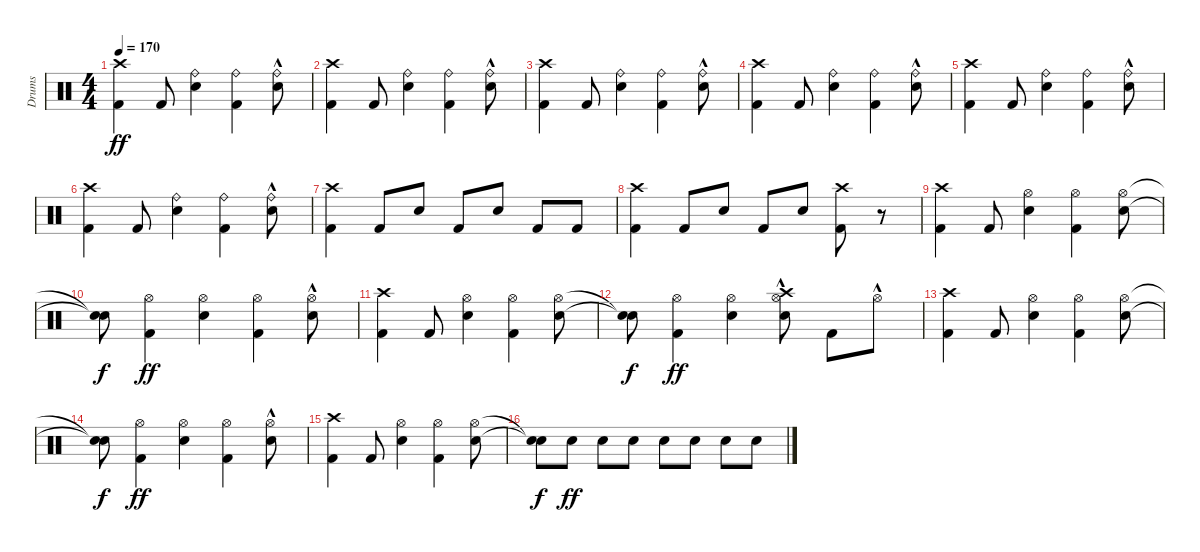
\track ("Drums" "Drums") {instrument percussion}
\staff {score}
\articulation defaults
\ts (4 4)
\tempo 170
\clef neutral
\ks c
("Kick (hit) 2" "Crash high (hit)").4{dy ff} "Kick (hit) 2".8 ("Snare (hit) 2" "Ride (bell)").4 ("Kick (hit) 2" "Ride (bell)").4 ("Snare (hit) 2" "Ride (bell)"{hac}).8 |
("Kick (hit) 2" "Crash high (hit)").4 "Kick (hit) 2".8 ("Snare (hit) 2" "Ride (bell)").4 ("Kick (hit) 2" "Ride (bell)").4 ("Snare (hit) 2" "Ride (bell)"{hac}).8 |
("Kick (hit) 2" "Crash high (hit)").4 "Kick (hit) 2".8 ("Snare (hit) 2" "Ride (bell)").4 ("Kick (hit) 2" "Ride (bell)").4 ("Snare (hit) 2" "Ride (bell)"{hac}).8 |
("Kick (hit) 2" "Crash high (hit)").4 "Kick (hit) 2".8 ("Snare (hit) 2" "Ride (bell)").4 ("Kick (hit) 2" "Ride (bell)").4 ("Snare (hit) 2" "Ride (bell)"{hac}).8 |
("Kick (hit) 2" "Crash high (hit)").4 "Kick (hit) 2".8 ("Snare (hit) 2" "Ride (bell)").4 ("Kick (hit) 2" "Ride (bell)").4 ("Snare (hit) 2" "Ride (bell)"{hac}).8 |
("Kick (hit) 2" "Crash high (hit)").4 "Kick (hit) 2".8 ("Snare (hit) 2" "Ride (bell)").4 ("Kick (hit) 2" "Ride (bell)").4 ("Snare (hit) 2" "Ride (bell)"{hac}).8 |
("Kick (hit) 2" "Crash high (hit)").4 "Kick (hit) 2".8 "Snare (hit) 2".8 "Kick (hit) 2".8 "Snare (hit) 2".8 "Kick (hit) 2".8 "Kick (hit) 2".8 |
("Kick (hit) 2" "Crash high (hit)").4 "Kick (hit) 2".8 "Snare (hit) 2".8 "Kick (hit) 2".8 "Snare (hit) 2".8 ("Kick (hit) 2" "Crash high (hit)").8 r.8 |
("Kick (hit) 2" "Crash high (hit)").4 "Kick (hit) 2".8 ("Snare (hit) 2" "Hi-Hat (open)").4 ("Kick (hit) 2" "Hi-Hat (open)").4 ("Snare (hit) 2" "Hi-Hat (open)").8 |
("Snare (hit)"{t} "Snare (hit)"{t}).8{dy f} ("Kick (hit) 2" "Hi-Hat (open)").4{dy ff} ("Snare (hit) 2" "Hi-Hat (open)").4 ("Kick (hit) 2" "Hi-Hat (open)").4 ("Snare (hit) 2" "Hi-Hat (open)"{hac}).8 |
("Kick (hit) 2" "Crash high (hit)").4 "Kick (hit) 2".8 ("Snare (hit) 2" "Hi-Hat (open)").4 ("Kick (hit) 2" "Hi-Hat (open)").4 ("Snare (hit) 2" "Hi-Hat (open)").8 |
("Snare (hit)"{t} "Snare (hit)"{t}).8{dy f} ("Kick (hit) 2" "Hi-Hat (open)").4{dy ff} ("Snare (hit) 2" "Hi-Hat (open)").4 ("Snare (hit) 2" "Hi-Hat (open)"{hac} "Crash high (hit)"{hac}).8 "Kick (hit) 2".8 "Hi-Hat (open)"{hac}.8 |
("Kick (hit) 2" "Crash high (hit)").4 "Kick (hit) 2".8 ("Snare (hit) 2" "Hi-Hat (open)").4 ("Kick (hit) 2" "Hi-Hat (open)").4 ("Snare (hit) 2" "Hi-Hat (open)").8 |
("Snare (hit)"{t} "Snare (hit)"{t}).8{dy f} ("Kick (hit) 2" "Hi-Hat (open)").4{dy ff} ("Snare (hit) 2" "Hi-Hat (open)").4 ("Kick (hit) 2" "Hi-Hat (open)").4 ("Snare (hit) 2" "Hi-Hat (open)"{hac}).8 |
("Kick (hit) 2" "Crash high (hit)").4 "Kick (hit) 2".8 ("Snare (hit) 2" "Hi-Hat (open)").4 ("Kick (hit) 2" "Hi-Hat (open)").4 ("Snare (hit) 2" "Hi-Hat (open)").8 |
("Snare (hit)"{t} "Snare (hit)"{t}).8{dy f} "Snare (hit) 2".8{dy ff} "Snare (hit) 2".8 "Snare (hit) 2".8 "Snare (hit) 2".8 "Snare (hit) 2".8 "Snare (hit) 2".8 "Snare (hit) 2".8
